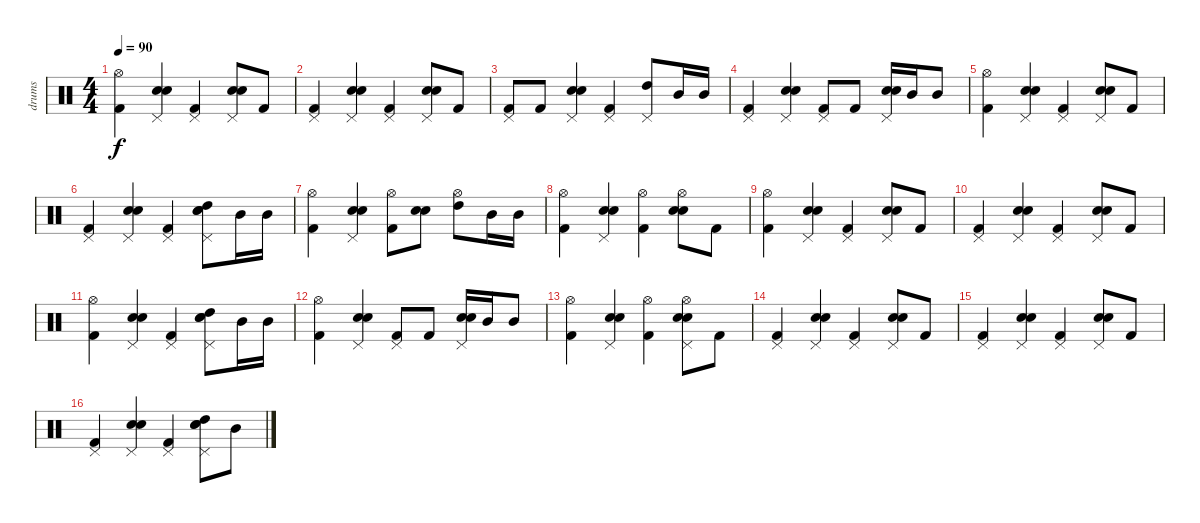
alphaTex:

\track ("drums" "drums") {instrument percussion}
\staff {score}
\articulation defaults
\ts (4 4)
\tempo 90
\clef neutral
\ks c
("Hi-Hat (open)" "Kick (hit) 2").4{dy f} ("Snare (hit) 2" "Electric Snare (hit)" "Pedal Hi-Hat (hit)").4 ("Kick (hit) 2" "Pedal Hi-Hat (hit)").4 ("Snare (hit) 2" "Electric Snare (hit)" "Pedal Hi-Hat (hit)").8 "Kick (hit) 2".8 |
("Kick (hit) 2" "Pedal Hi-Hat (hit)").4 ("Snare (hit) 2" "Electric Snare (hit)" "Pedal Hi-Hat (hit)").4 ("Kick (hit) 2" "Pedal Hi-Hat (hit)").4 ("Snare (hit) 2" "Electric Snare (hit)" "Pedal Hi-Hat (hit)").8 "Kick (hit) 2".8 |
("Kick (hit) 2" "Pedal Hi-Hat (hit)").8 "Kick (hit) 2".8 ("Snare (hit) 2" "Electric Snare (hit)" "Pedal Hi-Hat (hit)").4 ("Kick (hit) 2" "Pedal Hi-Hat (hit)").4 ("High Tom (hit)" "Pedal Hi-Hat (hit)").8 "Mid Tom (hit)".16 "Mid Tom (hit)".16 |
("Kick (hit) 2" "Pedal Hi-Hat (hit)").4 ("Snare (hit) 2" "Electric Snare (hit)" "Pedal Hi-Hat (hit)").4 ("Kick (hit) 2" "Pedal Hi-Hat (hit)").8 "Kick (hit) 2".8 ("Snare (hit) 2" "Electric Snare (hit)" "Pedal Hi-Hat (hit)").16 "Mid Tom (hit)".16 "Mid Tom (hit)".8 |
("Hi-Hat (open)" "Kick (hit) 2").4 ("Snare (hit) 2" "Electric Snare (hit)" "Pedal Hi-Hat (hit)").4 ("Kick (hit) 2" "Pedal Hi-Hat (hit)").4 ("Snare (hit) 2" "Electric Snare (hit)" "Pedal Hi-Hat (hit)").8 "Kick (hit) 2".8 |
("Kick (hit) 2" "Pedal Hi-Hat (hit)").4 ("Snare (hit) 2" "Electric Snare (hit)" "Pedal Hi-Hat (hit)").4 ("Kick (hit) 2" "Pedal Hi-Hat (hit)").4 ("Snare (hit) 2" "Electric Snare (hit)" "High Tom (hit)" "Pedal Hi-Hat (hit)").8 "Mid Tom (hit)".16 "Mid Tom (hit)".16 |
("Hi-Hat (open)" "Kick (hit) 2").4 ("Snare (hit) 2" "Electric Snare (hit)" "Pedal Hi-Hat (hit)").4 ("Hi-Hat (open)" "Kick (hit) 2").8 ("Snare (hit) 2" "Electric Snare (hit)").8 ("Hi-Hat (open)" "High Tom (hit)").8 "Mid Tom (hit)".16 "Mid Tom (hit)".16 |
("Hi-Hat (open)" "Kick (hit) 2").4 ("Snare (hit) 2" "Electric Snare (hit)" "Pedal Hi-Hat (hit)").4 ("Hi-Hat (open)" "Kick (hit) 2").4 ("Hi-Hat (open)" "Snare (hit) 2" "Electric Snare (hit)").8 "Kick (hit) 2".8 |
("Hi-Hat (open)" "Kick (hit) 2").4 ("Snare (hit) 2" "Electric Snare (hit)" "Pedal Hi-Hat (hit)").4 ("Kick (hit) 2" "Pedal Hi-Hat (hit)").4 ("Snare (hit) 2" "Electric Snare (hit)" "Pedal Hi-Hat (hit)").8 "Kick (hit) 2".8 |
("Kick (hit) 2" "Pedal Hi-Hat (hit)").4 ("Snare (hit) 2" "Electric Snare (hit)" "Pedal Hi-Hat (hit)").4 ("Kick (hit) 2" "Pedal Hi-Hat (hit)").4 ("Snare (hit) 2" "Electric Snare (hit)" "Pedal Hi-Hat (hit)").8 "Kick (hit) 2".8 |
("Hi-Hat (open)" "Kick (hit) 2").4 ("Snare (hit) 2" "Electric Snare (hit)" "Pedal Hi-Hat (hit)").4 ("Kick (hit) 2" "Pedal Hi-Hat (hit)").4 ("Snare (hit) 2" "Electric Snare (hit)" "High Tom (hit)" "Pedal Hi-Hat (hit)").8 "Mid Tom (hit)".16 "Mid Tom (hit)".16 |
("Hi-Hat (open)" "Kick (hit) 2").4 ("Snare (hit) 2" "Electric Snare (hit)" "Pedal Hi-Hat (hit)").4 ("Kick (hit) 2" "Pedal Hi-Hat (hit)").8 "Kick (hit) 2".8 ("Snare (hit) 2" "Electric Snare (hit)" "Pedal Hi-Hat (hit)").16 "Mid Tom (hit)".16 "Mid Tom (hit)".8 |
("Hi-Hat (open)" "Kick (hit) 2").4 ("Snare (hit) 2" "Electric Snare (hit)" "Pedal Hi-Hat (hit)").4 ("Hi-Hat (open)" "Kick (hit) 2").4 ("Hi-Hat (open)" "Snare (hit) 2" "Electric Snare (hit)" "Pedal Hi-Hat (hit)").8 "Kick (hit) 2".8 |
("Kick (hit) 2" "Pedal Hi-Hat (hit)").4 ("Snare (hit) 2" "Electric Snare (hit)" "Pedal Hi-Hat (hit)").4 ("Kick (hit) 2" "Pedal Hi-Hat (hit)").4 ("Snare (hit) 2" "Electric Snare (hit)" "Pedal Hi-Hat (hit)").8 "Kick (hit) 2".8 |
("Kick (hit) 2" "Pedal Hi-Hat (hit)").4 ("Snare (hit) 2" "Electric Snare (hit)" "Pedal Hi-Hat (hit)").4 ("Kick (hit) 2" "Pedal Hi-Hat (hit)").4 ("Snare (hit) 2" "Electric Snare (hit)" "Pedal Hi-Hat (hit)").8 "Kick (hit) 2".8 |
("Kick (hit) 2" "Pedal Hi-Hat (hit)").4 ("Snare (hit) 2" "Electric Snare (hit)" "Pedal Hi-Hat (hit)").4 ("Kick (hit) 2" "Pedal Hi-Hat (hit)").4 ("Snare (hit) 2" "Electric Snare (hit)" "High Tom (hit)" "Pedal Hi-Hat (hit)").8 "Mid Tom (hit)".8
